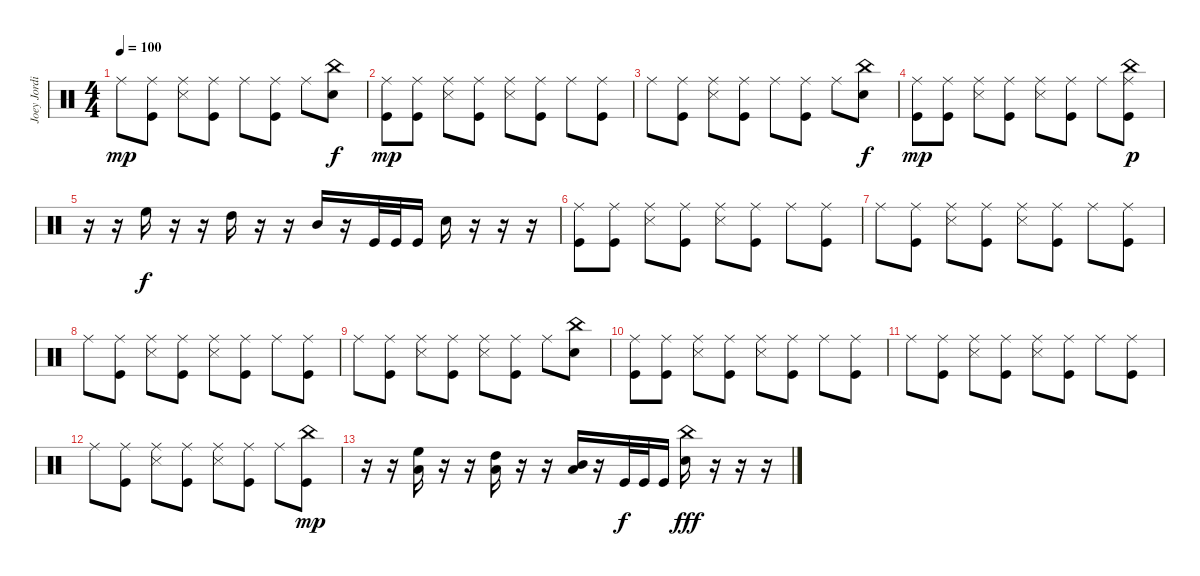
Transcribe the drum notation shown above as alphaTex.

\track ("Joey Jordison" "Joey Jordi") {instrument percussion}
\staff {score}
\articulation defaults
\ts (4 4)
\tempo 100
\clef neutral
\ks c "Ride (middle)".8{dy mp}
("Kick (hit)" "Ride (middle)").8 ("Snare (side stick) 3" "Ride (middle)").8 ("Kick (hit)" "Ride (middle)").8 "Ride (middle)".8 ("Kick (hit)" "Ride (middle)").8 "Ride (middle)".8 ("Snare (hit) 2" "China (hit)").8{dy f} |
("Kick (hit)" "Ride (middle)").8{dy mp} ("Kick (hit)" "Ride (middle)").8 ("Snare (side stick) 3" "Ride (middle)").8 ("Kick (hit)" "Ride (middle)").8 ("Snare (side stick) 3" "Ride (middle)").8 ("Kick (hit)" "Ride (middle)").8 "Ride (middle)".8 ("Kick (hit)" "Ride (middle)").8 |
"Ride (middle)".8 ("Kick (hit)" "Ride (middle)").8 ("Snare (side stick) 3" "Ride (middle)").8 ("Kick (hit)" "Ride (middle)").8 "Ride (middle)".8 ("Kick (hit)" "Ride (middle)").8 "Ride (middle)".8 ("Snare (hit) 2" "China (hit)").8{dy f} |
("Kick (hit)" "Ride (middle)").8{dy mp} ("Kick (hit)" "Ride (middle)").8 ("Snare (side stick) 3" "Ride (middle)").8 ("Kick (hit)" "Ride (middle)").8 ("Snare (side stick) 3" "Ride (middle)").8 ("Kick (hit)" "Ride (middle)").8 "Ride (middle)".8 ("Kick (hit)" "Ride (middle)" "China (hit)").8{dy p} |
r.16 r.16 "High Floor Tom (hit)".16{dy f} r.16 r.16 "High Tom (hit)".16 r.16 r.16 "Mid Tom (hit)".16 r.16 "Kick (hit)".32 "Kick (hit)".32 "Kick (hit)".16 "Snare (hit) 2".16 r.16 r.16 r.16 |
("Ride (middle)" "Kick (hit)").8 ("Ride (middle)" "Kick (hit)").8 ("Ride (middle)" "Snare (side stick) 3").8 ("Ride (middle)" "Kick (hit)").8 ("Ride (middle)" "Snare (side stick) 3").8 ("Ride (middle)" "Kick (hit)").8 "Ride (middle)".8 ("Ride (middle)" "Kick (hit)").8 |
"Ride (middle)".8 ("Ride (middle)" "Kick (hit)").8 ("Ride (middle)" "Snare (side stick) 3").8 ("Ride (middle)" "Kick (hit)").8 ("Ride (middle)" "Snare (side stick) 3").8 ("Ride (middle)" "Kick (hit)").8 "Ride (middle)".8 ("Ride (middle)" "Kick (hit)").8 |
"Ride (middle)".8 ("Ride (middle)" "Kick (hit)").8 ("Ride (middle)" "Snare (side stick) 3").8 ("Ride (middle)" "Kick (hit)").8 ("Ride (middle)" "Snare (side stick) 3").8 ("Ride (middle)" "Kick (hit)").8 "Ride (middle)".8 ("Ride (middle)" "Kick (hit)").8 |
"Ride (middle)".8 ("Ride (middle)" "Kick (hit)").8 ("Ride (middle)" "Snare (side stick) 3").8 ("Ride (middle)" "Kick (hit)").8 ("Ride (middle)" "Snare (side stick) 3").8 ("Ride (middle)" "Kick (hit)").8 "Ride (middle)".8 ("China (hit)" "Snare (hit) 2").8 |
("Ride (middle)" "Kick (hit)").8 ("Ride (middle)" "Kick (hit)").8 ("Ride (middle)" "Snare (side stick) 3").8 ("Ride (middle)" "Kick (hit)").8 ("Ride (middle)" "Snare (side stick) 3").8 ("Ride (middle)" "Kick (hit)").8 "Ride (middle)".8 ("Ride (middle)" "Kick (hit)").8 |
"Ride (middle)".8 ("Ride (middle)" "Kick (hit)").8 ("Ride (middle)" "Snare (side stick) 3").8 ("Ride (middle)" "Kick (hit)").8 ("Ride (middle)" "Snare (side stick) 3").8 ("Ride (middle)" "Kick (hit)").8 "Ride (middle)".8 ("Ride (middle)" "Kick (hit)").8 |
"Ride (middle)".8 ("Ride (middle)" "Kick (hit)").8 ("Ride (middle)" "Snare (side stick) 3").8 ("Ride (middle)" "Kick (hit)").8 ("Ride (middle)" "Snare (side stick) 3").8 ("Ride (middle)" "Kick (hit)").8 "Ride (middle)".8 ("China (hit)" "Kick (hit)").8{dy mp} |
r.16 r.16 ("High Floor Tom (hit)" "Low Floor Tom (hit)").16 r.16 r.16 ("High Tom (hit)" "Low Floor Tom (hit)").16 r.16 r.16 ("Mid Tom (hit)" "Low Floor Tom (hit)").16 r.16 "Kick (hit)".32{dy f} "Kick (hit)".32 "Kick (hit)".16 ("China (hit)" "Snare (hit) 2").16{dy fff} r.16 r.16 r.16
